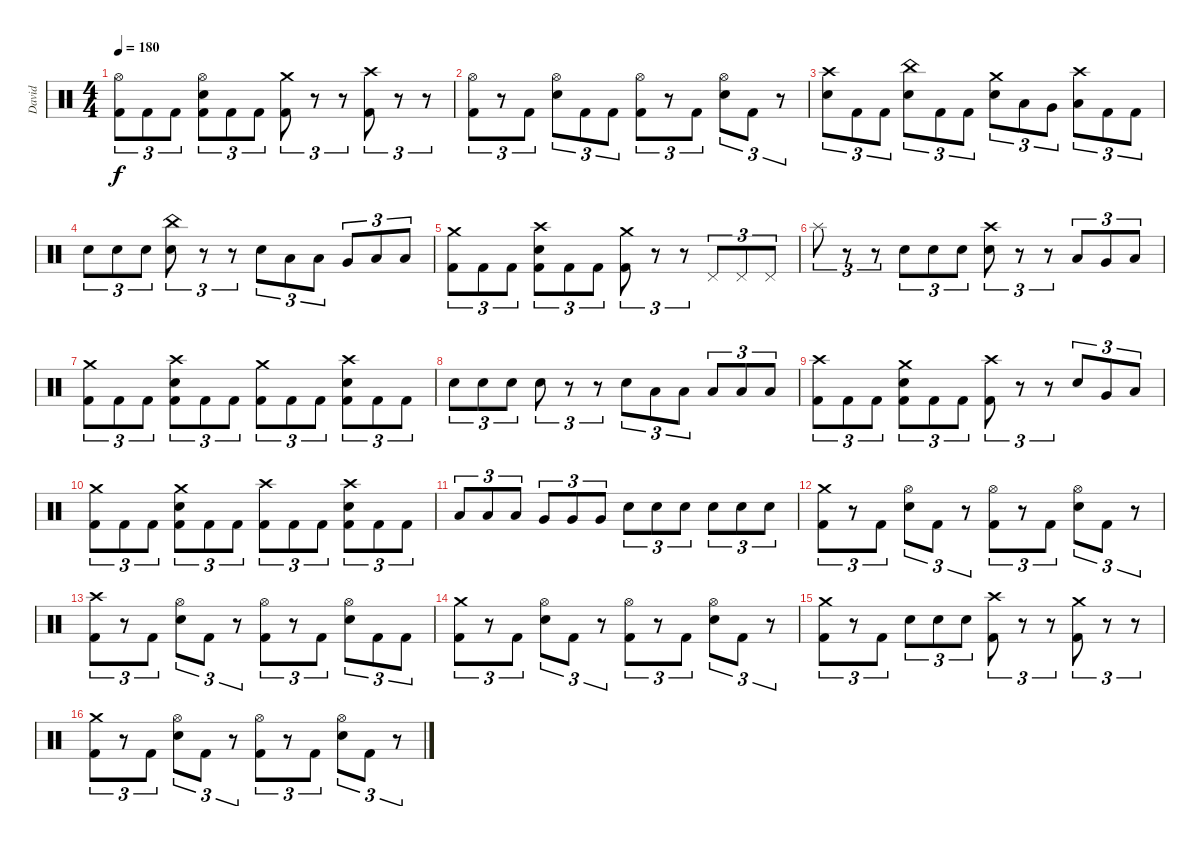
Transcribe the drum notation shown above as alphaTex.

\track ("David" "David") {instrument percussion}
\staff {score}
\articulation defaults
\ts (4 4)
\tempo 180
\clef neutral
\ks c
("Hi-Hat (open)" "Kick (hit) 2").8{tu (3 2) dy f} "Kick (hit) 2".8{tu (3 2)} "Kick (hit) 2".8{tu (3 2)} ("Hi-Hat (open)" "Electric Snare (hit)" "Kick (hit) 2").8{tu (3 2)} "Kick (hit) 2".8{tu (3 2)} "Kick (hit) 2".8{tu (3 2)} ("Crash medium (hit)" "Kick (hit) 2").8{tu (3 2)} r.8{tu (3 2)} r.8{tu (3 2)} ("Crash high (hit)" "Kick (hit) 2").8{tu (3 2)} r.8{tu (3 2)} r.8{tu (3 2)} |
("Hi-Hat (open)" "Kick (hit) 2").8{tu (3 2)} r.8{tu (3 2)} "Kick (hit) 2".8{tu (3 2)} ("Hi-Hat (open)" "Electric Snare (hit)").8{tu (3 2)} "Kick (hit) 2".8{tu (3 2)} "Kick (hit) 2".8{tu (3 2)} ("Hi-Hat (open)" "Kick (hit) 2").8{tu (3 2)} r.8{tu (3 2)} "Kick (hit) 2".8{tu (3 2)} ("Hi-Hat (open)" "Electric Snare (hit)").8{tu (3 2)} "Kick (hit) 2".8{tu (3 2)} r.8{tu (3 2)} |
("Crash high (hit)" "Electric Snare (hit)").8{tu (3 2)} "Kick (hit) 2".8{tu (3 2)} "Kick (hit) 2".8{tu (3 2)} ("China (hit)" "Electric Snare (hit)").8{tu (3 2)} "Kick (hit) 2".8{tu (3 2)} "Kick (hit) 2".8{tu (3 2)} ("Crash medium (hit)" "Electric Snare (hit)").8{tu (3 2)} "Low Tom (hit)".8{tu (3 2)} "Very Low Tom (hit)".8{tu (3 2)} ("Crash high (hit)" "Low Floor Tom (hit)").8{tu (3 2)} "Kick (hit) 2".8{tu (3 2)} "Kick (hit) 2".8{tu (3 2)} |
"Electric Snare (hit)".8{tu (3 2)} "Electric Snare (hit)".8{tu (3 2)} "Electric Snare (hit)".8{tu (3 2)} ("China (hit)" "Electric Snare (hit)").8{tu (3 2)} r.8{tu (3 2)} r.8{tu (3 2)} "Electric Snare (hit)".8{tu (3 2)} "Low Tom (hit)".8{tu (3 2)} "Low Tom (hit)".8{tu (3 2)} "Very Low Tom (hit)".8{tu (3 2)} "Low Floor Tom (hit)".8{tu (3 2)} "Low Floor Tom (hit)".8{tu (3 2)} |
("Crash medium (hit)" "Kick (hit) 2").8{tu (3 2)} "Kick (hit) 2".8{tu (3 2)} "Kick (hit) 2".8{tu (3 2)} ("Crash high (hit)" "Electric Snare (hit)" "Kick (hit) 2").8{tu (3 2)} "Kick (hit) 2".8{tu (3 2)} "Kick (hit) 2".8{tu (3 2)} ("Crash medium (hit)" "Kick (hit) 2").8{tu (3 2)} r.8{tu (3 2)} r.8{tu (3 2)} "Pedal Hi-Hat (hit)".8{tu (3 2)} "Pedal Hi-Hat (hit)".8{tu (3 2)} "Pedal Hi-Hat (hit)".8{tu (3 2)} |
"Splash (hit)".8{tu (3 2)} r.8{tu (3 2)} r.8{tu (3 2)} "Electric Snare (hit)".8{tu (3 2)} "Electric Snare (hit)".8{tu (3 2)} "Electric Snare (hit)".8{tu (3 2)} ("Crash high (hit)" "Electric Snare (hit)").8{tu (3 2)} r.8{tu (3 2)} r.8{tu (3 2)} "Low Tom (hit)".8{tu (3 2)} "Very Low Tom (hit)".8{tu (3 2)} "Low Floor Tom (hit)".8{tu (3 2)} |
("Crash medium (hit)" "Kick (hit) 2").8{tu (3 2)} "Kick (hit) 2".8{tu (3 2)} "Kick (hit) 2".8{tu (3 2)} ("Crash high (hit)" "Electric Snare (hit)" "Kick (hit) 2").8{tu (3 2)} "Kick (hit) 2".8{tu (3 2)} "Kick (hit) 2".8{tu (3 2)} ("Crash medium (hit)" "Kick (hit) 2").8{tu (3 2)} "Kick (hit) 2".8{tu (3 2)} "Kick (hit) 2".8{tu (3 2)} ("Crash high (hit)" "Electric Snare (hit)" "Kick (hit) 2").8{tu (3 2)} "Kick (hit) 2".8{tu (3 2)} "Kick (hit) 2".8{tu (3 2)} |
"Electric Snare (hit)".8{tu (3 2)} "Electric Snare (hit)".8{tu (3 2)} "Electric Snare (hit)".8{tu (3 2)} "Electric Snare (hit)".8{tu (3 2)} r.8{tu (3 2)} r.8{tu (3 2)} "Electric Snare (hit)".8{tu (3 2)} "Low Tom (hit)".8{tu (3 2)} "Low Tom (hit)".8{tu (3 2)} "Low Tom (hit)".8{tu (3 2)} "Low Floor Tom (hit)".8{tu (3 2)} "Low Floor Tom (hit)".8{tu (3 2)} |
("Crash high (hit)" "Kick (hit) 2").8{tu (3 2)} "Kick (hit) 2".8{tu (3 2)} "Kick (hit) 2".8{tu (3 2)} ("Crash medium (hit)" "Electric Snare (hit)" "Kick (hit) 2").8{tu (3 2)} "Kick (hit) 2".8{tu (3 2)} "Kick (hit) 2".8{tu (3 2)} ("Crash high (hit)" "Kick (hit) 2").8{tu (3 2)} r.8{tu (3 2)} r.8{tu (3 2)} "Electric Snare (hit)".8{tu (3 2)} "Very Low Tom (hit)".8{tu (3 2)} "Low Floor Tom (hit)".8{tu (3 2)} |
("Crash medium (hit)" "Kick (hit) 2").8{tu (3 2)} "Kick (hit) 2".8{tu (3 2)} "Kick (hit) 2".8{tu (3 2)} ("Crash medium (hit)" "Electric Snare (hit)" "Kick (hit) 2").8{tu (3 2)} "Kick (hit) 2".8{tu (3 2)} "Kick (hit) 2".8{tu (3 2)} ("Crash high (hit)" "Kick (hit) 2").8{tu (3 2)} "Kick (hit) 2".8{tu (3 2)} "Kick (hit) 2".8{tu (3 2)} ("Crash high (hit)" "Electric Snare (hit)" "Kick (hit) 2").8{tu (3 2)} "Kick (hit) 2".8{tu (3 2)} "Kick (hit) 2".8{tu (3 2)} |
"Low Tom (hit)".8{tu (3 2)} "Low Tom (hit)".8{tu (3 2)} "Low Tom (hit)".8{tu (3 2)} "Very Low Tom (hit)".8{tu (3 2)} "Very Low Tom (hit)".8{tu (3 2)} "Very Low Tom (hit)".8{tu (3 2)} "Electric Snare (hit)".8{tu (3 2)} "Electric Snare (hit)".8{tu (3 2)} "Electric Snare (hit)".8{tu (3 2)} "Electric Snare (hit)".8{tu (3 2)} "Electric Snare (hit)".8{tu (3 2)} "Electric Snare (hit)".8{tu (3 2)} |
("Crash medium (hit)" "Kick (hit) 2").8{tu (3 2)} r.8{tu (3 2)} "Kick (hit) 2".8{tu (3 2)} ("Hi-Hat (open)" "Electric Snare (hit)").8{tu (3 2)} "Kick (hit) 2".8{tu (3 2)} r.8{tu (3 2)} ("Hi-Hat (open)" "Kick (hit) 2").8{tu (3 2)} r.8{tu (3 2)} "Kick (hit) 2".8{tu (3 2)} ("Hi-Hat (open)" "Electric Snare (hit)").8{tu (3 2)} "Kick (hit) 2".8{tu (3 2)} r.8{tu (3 2)} |
("Crash high (hit)" "Kick (hit) 2").8{tu (3 2)} r.8{tu (3 2)} "Kick (hit) 2".8{tu (3 2)} ("Hi-Hat (open)" "Electric Snare (hit)").8{tu (3 2)} "Kick (hit) 2".8{tu (3 2)} r.8{tu (3 2)} ("Hi-Hat (open)" "Kick (hit) 2").8{tu (3 2)} r.8{tu (3 2)} "Kick (hit) 2".8{tu (3 2)} ("Hi-Hat (open)" "Electric Snare (hit)").8{tu (3 2)} "Kick (hit) 2".8{tu (3 2)} "Kick (hit) 2".8{tu (3 2)} |
("Crash medium (hit)" "Kick (hit) 2").8{tu (3 2)} r.8{tu (3 2)} "Kick (hit) 2".8{tu (3 2)} ("Hi-Hat (open)" "Electric Snare (hit)").8{tu (3 2)} "Kick (hit) 2".8{tu (3 2)} r.8{tu (3 2)} ("Hi-Hat (open)" "Kick (hit) 2").8{tu (3 2)} r.8{tu (3 2)} "Kick (hit) 2".8{tu (3 2)} ("Hi-Hat (open)" "Electric Snare (hit)").8{tu (3 2)} "Kick (hit) 2".8{tu (3 2)} r.8{tu (3 2)} |
("Crash medium (hit)" "Kick (hit) 2").8{tu (3 2)} r.8{tu (3 2)} "Kick (hit) 2".8{tu (3 2)} "Electric Snare (hit)".8{tu (3 2)} "Electric Snare (hit)".8{tu (3 2)} "Electric Snare (hit)".8{tu (3 2)} ("Crash high (hit)" "Kick (hit) 2").8{tu (3 2)} r.8{tu (3 2)} r.8{tu (3 2)} ("Crash medium (hit)" "Kick (hit) 2").8{tu (3 2)} r.8{tu (3 2)} r.8{tu (3 2)} |
("Crash medium (hit)" "Kick (hit) 2").8{tu (3 2)} r.8{tu (3 2)} "Kick (hit) 2".8{tu (3 2)} ("Hi-Hat (open)" "Electric Snare (hit)").8{tu (3 2)} "Kick (hit) 2".8{tu (3 2)} r.8{tu (3 2)} ("Hi-Hat (open)" "Kick (hit) 2").8{tu (3 2)} r.8{tu (3 2)} "Kick (hit) 2".8{tu (3 2)} ("Hi-Hat (open)" "Electric Snare (hit)").8{tu (3 2)} "Kick (hit) 2".8{tu (3 2)} r.8{tu (3 2)}
